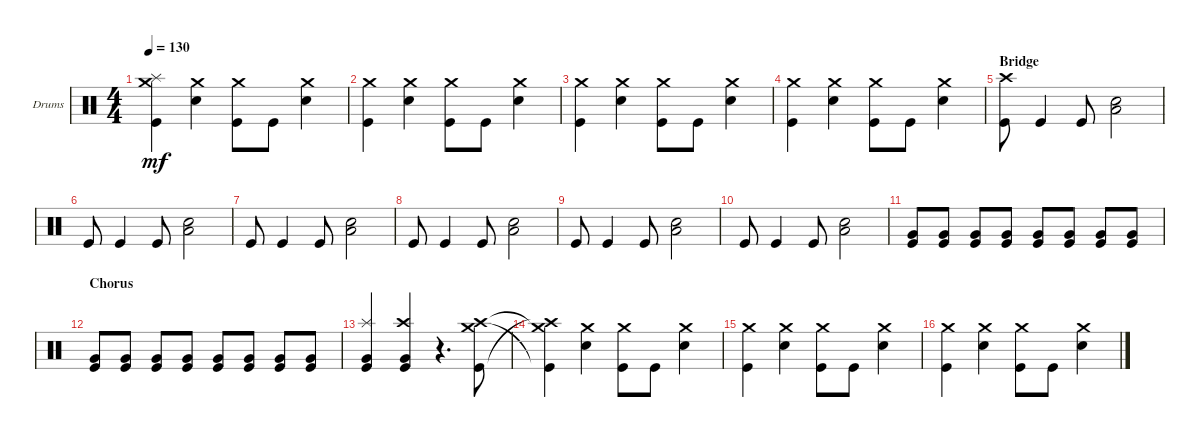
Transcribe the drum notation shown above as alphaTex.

\defaultSystemsLayout 4
\bracketExtendMode groupsimilarinstruments
\firstSystemTrackNameOrientation horizontal
\otherSystemsTrackNameOrientation horizontal
\track ("Drums" "Drums") {instrument percussion}
\staff {score}
\articulation defaults
\ts (4 4)
\tempo 130
\clef neutral
\ks c
("Kick (hit)" "Splash (hit)" "Crash medium (hit)").4{dy mf} ("Snare (hit) 2" "Crash medium (hit)").4 ("Kick (hit)" "Crash medium (hit)").8 "Kick (hit)".8 ("Snare (hit) 2" "Crash medium (hit)").4 |
("Kick (hit)" "Crash medium (hit)").4 ("Snare (hit) 2" "Crash medium (hit)").4 ("Kick (hit)" "Crash medium (hit)").8 "Kick (hit)".8 ("Snare (hit) 2" "Crash medium (hit)").4 |
("Kick (hit)" "Crash medium (hit)").4 ("Snare (hit) 2" "Crash medium (hit)").4 ("Kick (hit)" "Crash medium (hit)").8 "Kick (hit)".8 ("Snare (hit) 2" "Crash medium (hit)").4 |
("Kick (hit)" "Crash medium (hit)").4 ("Snare (hit) 2" "Crash medium (hit)").4 ("Kick (hit)" "Crash medium (hit)").8 "Kick (hit)".8 ("Snare (hit) 2" "Crash medium (hit)").4 |
\section ("" "Bridge")
("Crash high (hit)" "Kick (hit)").8 "Kick (hit)".4 "Kick (hit)".8 ("Snare (hit) 2" "Low Tom (hit)").2 |
"Kick (hit)".8 "Kick (hit)".4 "Kick (hit)".8 ("Snare (hit) 2" "Low Tom (hit)").2 |
"Kick (hit)".8 "Kick (hit)".4 "Kick (hit)".8 ("Snare (hit) 2" "Low Tom (hit)").2 |
"Kick (hit)".8 "Kick (hit)".4 "Kick (hit)".8 ("Snare (hit) 2" "Low Tom (hit)").2 |
"Kick (hit)".8 "Kick (hit)".4 "Kick (hit)".8 ("Snare (hit) 2" "Low Tom (hit)").2 |
"Kick (hit)".8 "Kick (hit)".4 "Kick (hit)".8 ("Snare (hit) 2" "Low Tom (hit)").2 |
("Very Low Tom (hit)" "Kick (hit)").8 ("Kick (hit)" "Very Low Tom (hit)").8 ("Kick (hit)" "Very Low Tom (hit)").8 ("Kick (hit)" "Very Low Tom (hit)").8 ("Kick (hit)" "Very Low Tom (hit)").8 ("Kick (hit)" "Very Low Tom (hit)").8 ("Kick (hit)" "Very Low Tom (hit)").8 ("Kick (hit)" "Very Low Tom (hit)").8 |
\section ("" "Chorus")
("Very Low Tom (hit)" "Kick (hit)").8 ("Kick (hit)" "Very Low Tom (hit)").8 ("Kick (hit)" "Very Low Tom (hit)").8 ("Kick (hit)" "Very Low Tom (hit)").8 ("Kick (hit)" "Very Low Tom (hit)").8 ("Kick (hit)" "Very Low Tom (hit)").8 ("Kick (hit)" "Very Low Tom (hit)").8 ("Kick (hit)" "Very Low Tom (hit)").8 |
("Kick (hit)" "Very Low Tom (hit)" "Splash (hit)").4 ("Very Low Tom (hit)" "Kick (hit)" "Crash high (hit)").4 r.4{d} ("Crash high (hit)" "Crash medium (hit)" "Kick (hit)").8 |
("Crash medium (hit)"{t} "Kick (hit)"{t} "Crash high (hit)"{t}).4 ("Snare (hit) 2" "Crash medium (hit)").4 ("Kick (hit)" "Crash medium (hit)").8 "Kick (hit)".8 ("Snare (hit) 2" "Crash medium (hit)").4 |
("Kick (hit)" "Crash medium (hit)").4 ("Snare (hit) 2" "Crash medium (hit)").4 ("Kick (hit)" "Crash medium (hit)").8 "Kick (hit)".8 ("Snare (hit) 2" "Crash medium (hit)").4 |
("Kick (hit)" "Crash medium (hit)").4 ("Snare (hit) 2" "Crash medium (hit)").4 ("Kick (hit)" "Crash medium (hit)").8 "Kick (hit)".8 ("Snare (hit) 2" "Crash medium (hit)").4
